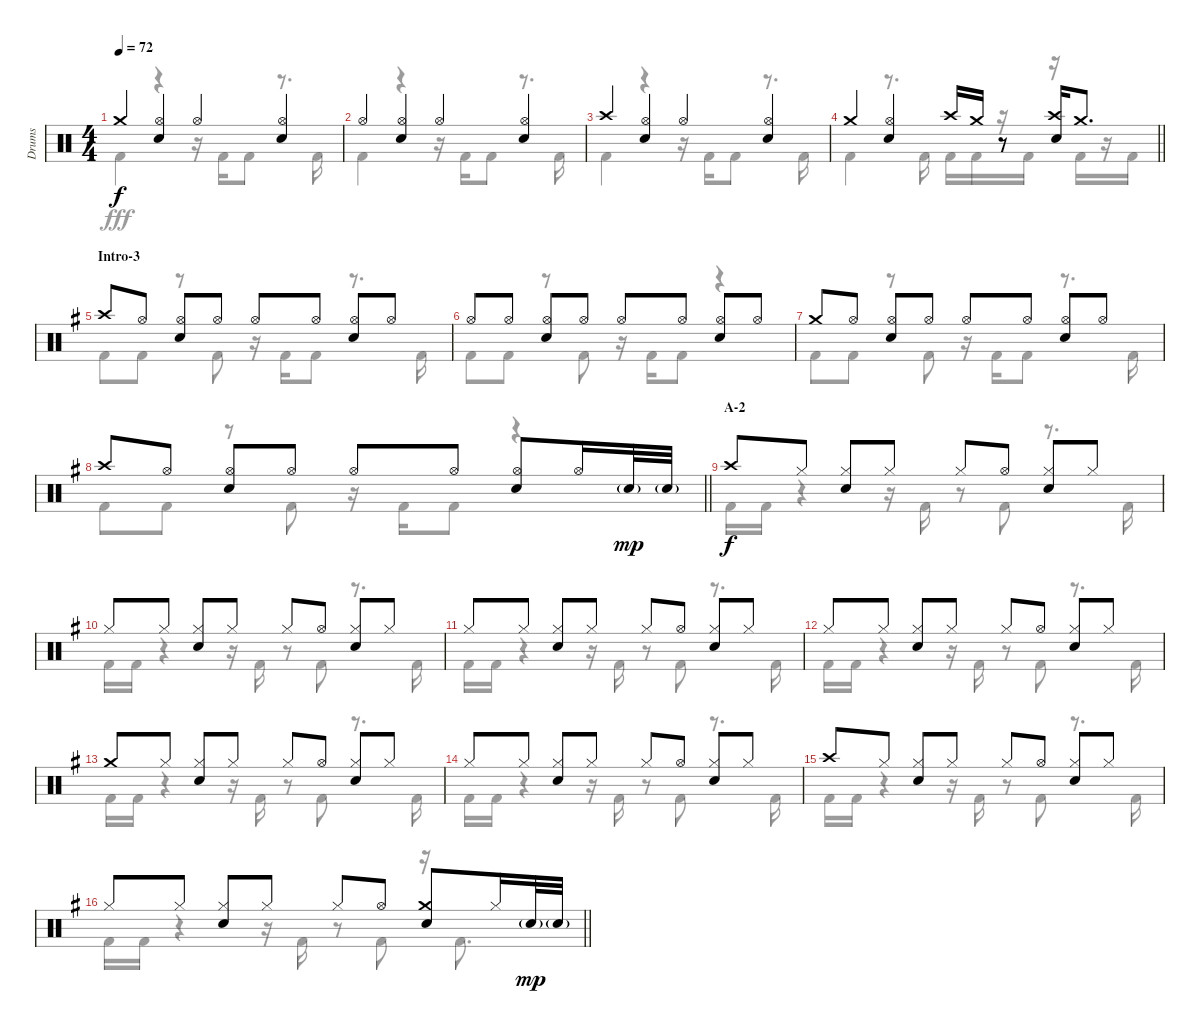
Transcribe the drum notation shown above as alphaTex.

\track ("Drums" "Drums") {instrument percussion}
\staff {score}
\articulation defaults
\voice
\ts (4 4)
\tempo 72
\clef neutral
\ks aminor "Crash medium (hit)".4{dy f}
("Hi-Hat (open)" "Snare (hit) 2").4 "Hi-Hat (open)".4 ("Hi-Hat (open)" "Snare (hit) 2").4 |
"Hi-Hat (open)".4 ("Hi-Hat (open)" "Snare (hit) 2").4 "Hi-Hat (open)".4 ("Hi-Hat (open)" "Snare (hit) 2").4 |
"Crash high (hit)".4 ("Hi-Hat (open)" "Snare (hit) 2").4 "Hi-Hat (open)".4 ("Hi-Hat (open)" "Snare (hit) 2").4 |
\barLineRight lightlight "Crash medium (hit)".4
("Hi-Hat (open)" "Snare (hit) 2").4 "Crash high (hit)".16 "Crash medium (hit)".16 r.8 ("Crash high (hit)" "Snare (hit) 2").16 "Crash medium (hit)".8{d} |
\section ("" "Intro-3")
\ks g "Crash high (hit)".8 "Hi-Hat (open)".8
("Hi-Hat (open)" "Snare (hit) 2").8 "Hi-Hat (open)".8 "Hi-Hat (open)".8 "Hi-Hat (open)".8 ("Hi-Hat (open)" "Snare (hit) 2").8 "Hi-Hat (open)".8 |
"Hi-Hat (open)".8 "Hi-Hat (open)".8 ("Hi-Hat (open)" "Snare (hit) 2").8 "Hi-Hat (open)".8 "Hi-Hat (open)".8 "Hi-Hat (open)".8 ("Hi-Hat (open)" "Snare (hit) 2").8 "Hi-Hat (open)".8 |
"Crash medium (hit)".8 "Hi-Hat (open)".8 ("Hi-Hat (open)" "Snare (hit) 2").8 "Hi-Hat (open)".8 "Hi-Hat (open)".8 "Hi-Hat (open)".8 ("Hi-Hat (open)" "Snare (hit) 2").8 "Hi-Hat (open)".8 |
\barLineRight lightlight "Crash high (hit)".8 "Hi-Hat (open)".8
("Hi-Hat (open)" "Snare (hit) 2").8 "Hi-Hat (open)".8 "Hi-Hat (open)".8 "Hi-Hat (open)".8 ("Hi-Hat (open)" "Snare (hit) 2").8 "Hi-Hat (open)".16 "Snare (hit) 2"{g}.32{dy mp} "Snare (hit) 2"{g}.32 |
\section ("" "A-2")
"Crash high (hit)".8{dy f} "Hi-Hat (closed)".8 ("Hi-Hat (closed)" "Snare (hit) 2").8 "Hi-Hat (closed)".8 "Hi-Hat (closed)".8 "Hi-Hat (open)".8 ("Hi-Hat (closed)" "Snare (hit) 2").8 "Hi-Hat (closed)".8 |
"Hi-Hat (closed)".8 "Hi-Hat (closed)".8 ("Hi-Hat (closed)" "Snare (hit) 2").8 "Hi-Hat (closed)".8 "Hi-Hat (closed)".8 "Hi-Hat (open)".8 ("Hi-Hat (closed)" "Snare (hit) 2").8 "Hi-Hat (closed)".8 |
"Hi-Hat (closed)".8 "Hi-Hat (closed)".8 ("Hi-Hat (closed)" "Snare (hit) 2").8 "Hi-Hat (closed)".8 "Hi-Hat (closed)".8 "Hi-Hat (open)".8 ("Hi-Hat (closed)" "Snare (hit) 2").8 "Hi-Hat (closed)".8 |
"Hi-Hat (closed)".8 "Hi-Hat (closed)".8 ("Hi-Hat (closed)" "Snare (hit) 2").8 "Hi-Hat (closed)".8 "Hi-Hat (closed)".8 "Hi-Hat (open)".8 ("Hi-Hat (closed)" "Snare (hit) 2").8 "Hi-Hat (closed)".8 |
"Crash medium (hit)".8 "Hi-Hat (closed)".8 ("Hi-Hat (closed)" "Snare (hit) 2").8 "Hi-Hat (closed)".8 "Hi-Hat (closed)".8 "Hi-Hat (open)".8 ("Hi-Hat (closed)" "Snare (hit) 2").8 "Hi-Hat (closed)".8 |
"Hi-Hat (closed)".8 "Hi-Hat (closed)".8 ("Hi-Hat (closed)" "Snare (hit) 2").8 "Hi-Hat (closed)".8 "Hi-Hat (closed)".8 "Hi-Hat (open)".8 ("Hi-Hat (closed)" "Snare (hit) 2").8 "Hi-Hat (closed)".8 |
"Crash high (hit)".8 "Hi-Hat (closed)".8 ("Hi-Hat (closed)" "Snare (hit) 2").8 "Hi-Hat (closed)".8 "Hi-Hat (closed)".8 "Hi-Hat (open)".8 ("Hi-Hat (closed)" "Snare (hit) 2").8 "Hi-Hat (closed)".8 |
\barLineRight lightlight "Hi-Hat (closed)".8 "Hi-Hat (closed)".8
("Hi-Hat (closed)" "Snare (hit) 2").8 "Hi-Hat (closed)".8 "Hi-Hat (closed)".8 "Hi-Hat (open)".8 ("Crash medium (hit)" "Snare (hit) 2").8 "Hi-Hat (closed)".16 "Snare (hit) 2"{g}.32{dy mp} "Snare (hit) 2"{g}.32
\voice
\clef neutral
\ottava regular
\simile none
\ks aminor "Kick (hit) 2".4{dy fff}
r.4 r.16 "Kick (hit) 2".16 "Kick (hit) 2".8 r.8{d} "Kick (hit) 2".16 |
"Kick (hit) 2".4 r.4 r.16 "Kick (hit) 2".16 "Kick (hit) 2".8 r.8{d} "Kick (hit) 2".16 |
"Kick (hit) 2".4 r.4 r.16 "Kick (hit) 2".16 "Kick (hit) 2".8 r.8{d} "Kick (hit) 2".16 |
\barLineRight lightlight "Kick (hit) 2".4
r.8{d} "Kick (hit) 2".16 "Kick (hit) 2".16 "Kick (hit) 2".16 r.16 "Kick (hit) 2".16 r.16 "Kick (hit) 2".16 r.16 "Kick (hit) 2".16 |
\ks g "Kick (hit) 2".8 "Kick (hit) 2".8
r.8 "Kick (hit) 2".8 r.16 "Kick (hit) 2".16 "Kick (hit) 2".8 r.8{d} "Kick (hit) 2".16 |
"Kick (hit) 2".8 "Kick (hit) 2".8 r.8 "Kick (hit) 2".8 r.16 "Kick (hit) 2".16 "Kick (hit) 2".8 r.4 |
"Kick (hit) 2".8 "Kick (hit) 2".8 r.8 "Kick (hit) 2".8 r.16 "Kick (hit) 2".16 "Kick (hit) 2".8 r.8{d} "Kick (hit) 2".16 |
\barLineRight lightlight "Kick (hit) 2".8 "Kick (hit) 2".8
r.8 "Kick (hit) 2".8 r.16 "Kick (hit) 2".16 "Kick (hit) 2".8 r.4 |
"Kick (hit) 2".16 "Kick (hit) 2".16 r.4 r.16 "Kick (hit) 2".16 r.8 "Kick (hit) 2".8 r.8{d} "Kick (hit) 2".16 |
"Kick (hit) 2".16 "Kick (hit) 2".16 r.4 r.16 "Kick (hit) 2".16 r.8 "Kick (hit) 2".8 r.8{d} "Kick (hit) 2".16 |
"Kick (hit) 2".16 "Kick (hit) 2".16 r.4 r.16 "Kick (hit) 2".16 r.8 "Kick (hit) 2".8 r.8{d} "Kick (hit) 2".16 |
"Kick (hit) 2".16 "Kick (hit) 2".16 r.4 r.16 "Kick (hit) 2".16 r.8 "Kick (hit) 2".8 r.8{d} "Kick (hit) 2".16 |
"Kick (hit) 2".16 "Kick (hit) 2".16 r.4 r.16 "Kick (hit) 2".16 r.8 "Kick (hit) 2".8 r.8{d} "Kick (hit) 2".16 |
"Kick (hit) 2".16 "Kick (hit) 2".16 r.4 r.16 "Kick (hit) 2".16 r.8 "Kick (hit) 2".8 r.8{d} "Kick (hit) 2".16 |
"Kick (hit) 2".16 "Kick (hit) 2".16 r.4 r.16 "Kick (hit) 2".16 r.8 "Kick (hit) 2".8 r.8{d} "Kick (hit) 2".16 |
\barLineRight lightlight "Kick (hit) 2".16 "Kick (hit) 2".16
r.4 r.16 "Kick (hit) 2".16 r.8 "Kick (hit) 2".8 r.16 "Kick (hit) 2".8{d}
